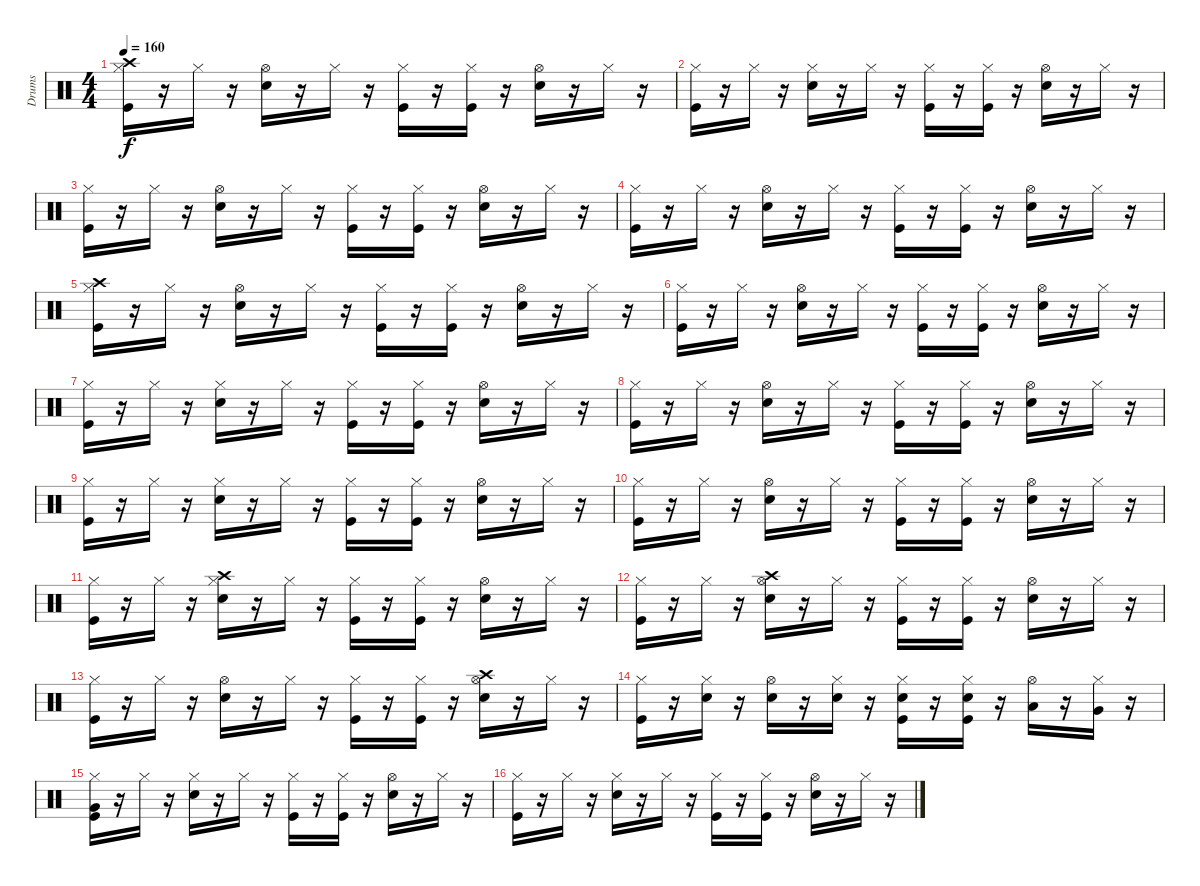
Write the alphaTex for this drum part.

\track ("Drums" "Drums") {instrument percussion}
\staff {score}
\articulation defaults
\ts (4 4)
\tempo 160
\clef neutral
\ks c
("Crash high (hit)" "Hi-Hat (closed)" "Kick (hit)").16{dy f} r.16 "Hi-Hat (closed)".16 r.16 ("Hi-Hat (open)" "Snare (hit) 2").16 r.16 "Hi-Hat (closed)".16 r.16 ("Hi-Hat (closed)" "Kick (hit)").16 r.16 ("Kick (hit)" "Hi-Hat (closed)").16 r.16 ("Hi-Hat (open)" "Snare (hit) 2").16 r.16 "Hi-Hat (closed)".16 r.16 |
("Hi-Hat (closed)" "Kick (hit)").16 r.16 "Hi-Hat (closed)".16 r.16 ("Hi-Hat (closed)" "Snare (hit) 2").16 r.16 "Hi-Hat (closed)".16 r.16 ("Hi-Hat (closed)" "Kick (hit)").16 r.16 ("Kick (hit)" "Hi-Hat (closed)").16 r.16 ("Hi-Hat (open)" "Snare (hit) 2").16 r.16 "Hi-Hat (closed)".16 r.16 |
("Hi-Hat (closed)" "Kick (hit)").16 r.16 "Hi-Hat (closed)".16 r.16 ("Hi-Hat (open)" "Snare (hit) 2").16 r.16 "Hi-Hat (closed)".16 r.16 ("Hi-Hat (closed)" "Kick (hit)").16 r.16 ("Kick (hit)" "Hi-Hat (closed)").16 r.16 ("Hi-Hat (open)" "Snare (hit) 2").16 r.16 "Hi-Hat (closed)".16 r.16 |
("Hi-Hat (closed)" "Kick (hit)").16 r.16 "Hi-Hat (closed)".16 r.16 ("Hi-Hat (open)" "Snare (hit) 2").16 r.16 "Hi-Hat (closed)".16 r.16 ("Hi-Hat (closed)" "Kick (hit)").16 r.16 ("Kick (hit)" "Hi-Hat (closed)").16 r.16 ("Hi-Hat (open)" "Snare (hit) 2").16 r.16 "Hi-Hat (closed)".16 r.16 |
("Crash high (hit)" "Hi-Hat (closed)" "Kick (hit)").16 r.16 "Hi-Hat (closed)".16 r.16 ("Hi-Hat (open)" "Snare (hit) 2").16 r.16 "Hi-Hat (closed)".16 r.16 ("Hi-Hat (closed)" "Kick (hit)").16 r.16 ("Kick (hit)" "Hi-Hat (closed)").16 r.16 ("Hi-Hat (open)" "Snare (hit) 2").16 r.16 "Hi-Hat (closed)".16 r.16 |
("Hi-Hat (closed)" "Kick (hit)").16 r.16 "Hi-Hat (closed)".16 r.16 ("Hi-Hat (open)" "Snare (hit) 2").16 r.16 "Hi-Hat (closed)".16 r.16 ("Hi-Hat (closed)" "Kick (hit)").16 r.16 ("Kick (hit)" "Hi-Hat (closed)").16 r.16 ("Hi-Hat (open)" "Snare (hit) 2").16 r.16 "Hi-Hat (closed)".16 r.16 |
("Hi-Hat (closed)" "Kick (hit)").16 r.16 "Hi-Hat (closed)".16 r.16 ("Hi-Hat (closed)" "Snare (hit) 2").16 r.16 "Hi-Hat (closed)".16 r.16 ("Hi-Hat (closed)" "Kick (hit)").16 r.16 ("Kick (hit)" "Hi-Hat (closed)").16 r.16 ("Hi-Hat (open)" "Snare (hit) 2").16 r.16 "Hi-Hat (closed)".16 r.16 |
("Hi-Hat (closed)" "Kick (hit)").16 r.16 "Hi-Hat (closed)".16 r.16 ("Hi-Hat (open)" "Snare (hit) 2").16 r.16 "Hi-Hat (closed)".16 r.16 ("Hi-Hat (closed)" "Kick (hit)").16 r.16 ("Kick (hit)" "Hi-Hat (closed)").16 r.16 ("Hi-Hat (open)" "Snare (hit) 2").16 r.16 "Hi-Hat (closed)".16 r.16 |
("Hi-Hat (closed)" "Kick (hit)").16 r.16 "Hi-Hat (closed)".16 r.16 ("Hi-Hat (closed)" "Snare (hit) 2").16 r.16 "Hi-Hat (closed)".16 r.16 ("Hi-Hat (closed)" "Kick (hit)").16 r.16 ("Kick (hit)" "Hi-Hat (closed)").16 r.16 ("Hi-Hat (open)" "Snare (hit) 2").16 r.16 "Hi-Hat (closed)".16 r.16 |
("Hi-Hat (closed)" "Kick (hit)").16 r.16 "Hi-Hat (closed)".16 r.16 ("Hi-Hat (open)" "Snare (hit) 2").16 r.16 "Hi-Hat (closed)".16 r.16 ("Hi-Hat (closed)" "Kick (hit)").16 r.16 ("Kick (hit)" "Hi-Hat (closed)").16 r.16 ("Hi-Hat (open)" "Snare (hit) 2").16 r.16 "Hi-Hat (closed)".16 r.16 |
("Hi-Hat (closed)" "Kick (hit)").16 r.16 "Hi-Hat (closed)".16 r.16 ("Crash high (hit)" "Hi-Hat (closed)" "Snare (hit) 2").16 r.16 "Hi-Hat (closed)".16 r.16 ("Hi-Hat (closed)" "Kick (hit)").16 r.16 ("Kick (hit)" "Hi-Hat (closed)").16 r.16 ("Hi-Hat (open)" "Snare (hit) 2").16 r.16 "Hi-Hat (closed)".16 r.16 |
("Hi-Hat (closed)" "Kick (hit)").16 r.16 "Hi-Hat (closed)".16 r.16 ("Crash high (hit)" "Hi-Hat (open)" "Snare (hit) 2").16 r.16 "Hi-Hat (closed)".16 r.16 ("Hi-Hat (closed)" "Kick (hit)").16 r.16 ("Kick (hit)" "Hi-Hat (closed)").16 r.16 ("Hi-Hat (open)" "Snare (hit) 2").16 r.16 "Hi-Hat (closed)".16 r.16 |
("Hi-Hat (closed)" "Kick (hit)").16 r.16 "Hi-Hat (closed)".16 r.16 ("Hi-Hat (open)" "Snare (hit) 2").16 r.16 "Hi-Hat (closed)".16 r.16 ("Hi-Hat (closed)" "Kick (hit)").16 r.16 ("Kick (hit)" "Hi-Hat (closed)").16 r.16 ("Crash high (hit)" "Hi-Hat (open)" "Snare (hit) 2").16 r.16 "Hi-Hat (closed)".16 r.16 |
("Hi-Hat (closed)" "Kick (hit)").16 r.16 ("Snare (hit) 2" "Hi-Hat (closed)").16 r.16 ("Hi-Hat (open)" "Snare (hit) 2").16 r.16 ("Snare (hit) 2" "Hi-Hat (closed)").16 r.16 ("Snare (hit) 2" "Hi-Hat (closed)" "Kick (hit)").16 r.16 ("Snare (hit) 2" "Kick (hit)" "Hi-Hat (closed)").16 r.16 ("Low Tom (hit)" "Hi-Hat (open)").16 r.16 ("Very Low Tom (hit)" "Hi-Hat (closed)").16 r.16 |
("Very Low Tom (hit)" "Hi-Hat (closed)" "Kick (hit)").16 r.16 "Hi-Hat (closed)".16 r.16 ("Hi-Hat (closed)" "Snare (hit) 2").16 r.16 "Hi-Hat (closed)".16 r.16 ("Hi-Hat (closed)" "Kick (hit)").16 r.16 ("Kick (hit)" "Hi-Hat (closed)").16 r.16 ("Hi-Hat (open)" "Snare (hit) 2").16 r.16 "Hi-Hat (closed)".16 r.16 |
("Hi-Hat (closed)" "Kick (hit)").16 r.16 "Hi-Hat (closed)".16 r.16 ("Hi-Hat (closed)" "Snare (hit) 2").16 r.16 "Hi-Hat (closed)".16 r.16 ("Hi-Hat (closed)" "Kick (hit)").16 r.16 ("Kick (hit)" "Hi-Hat (closed)").16 r.16 ("Hi-Hat (open)" "Snare (hit) 2").16 r.16 "Hi-Hat (closed)".16 r.16
